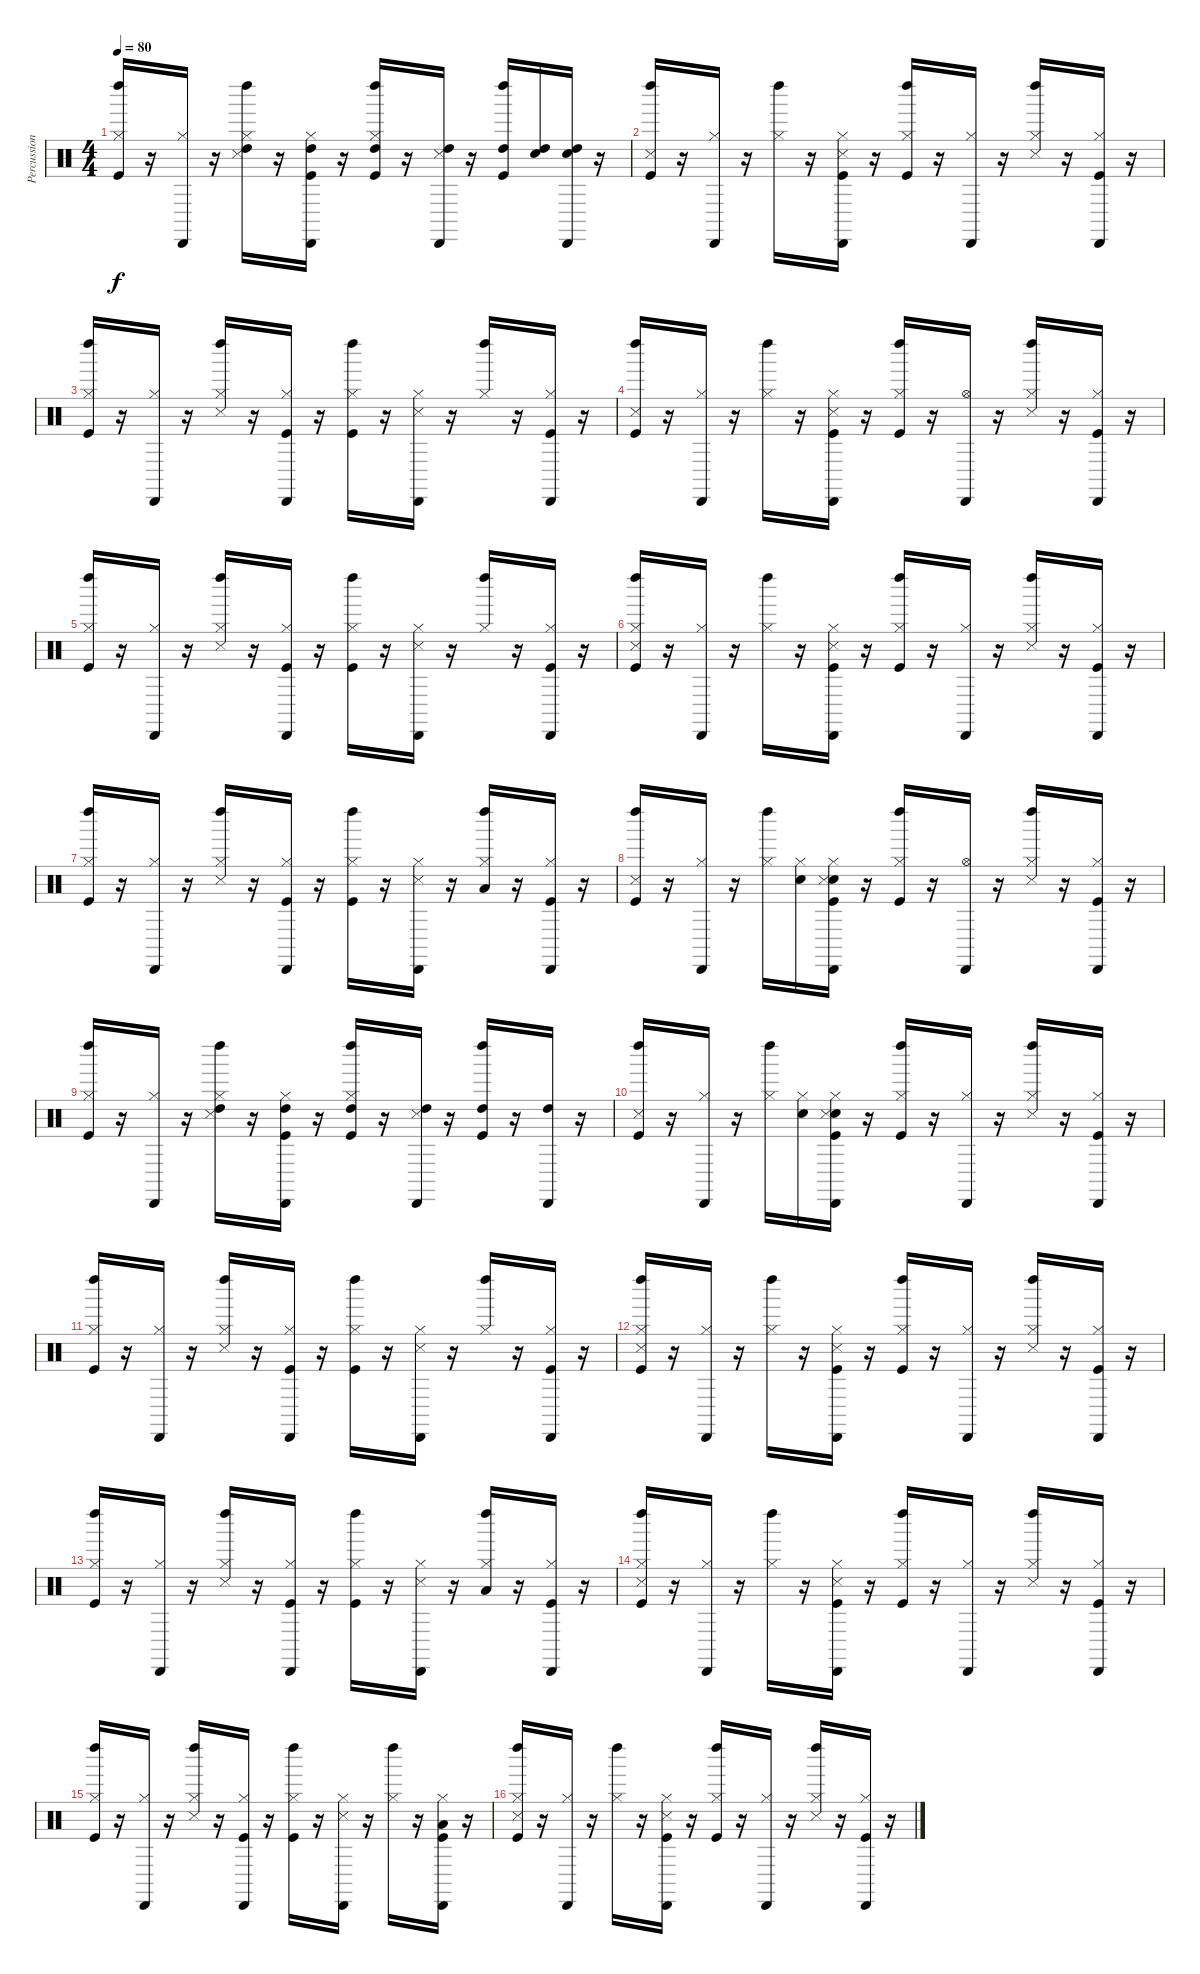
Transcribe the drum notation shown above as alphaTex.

\track ("Percussions" "Percussion") {instrument percussion}
\staff {score}
\articulation defaults
\ts (4 4)
\tempo 80
\clef neutral
\ks c
("Kick (hit)" "Hi-Hat (closed)" "Left Maraca (hit)").16{dy f} r.16 ("Hi-Hat (closed)" "Cabasa (hit)").16 r.16 ("Hi-Hat (closed)" "Snare (side stick) 3" "High Tom (hit)" "Left Maraca (hit)").16 r.16 ("Kick (hit)" "Hi-Hat (closed)" "High Tom (hit)" "Cabasa (hit)").16 r.16 ("Kick (hit)" "Hi-Hat (closed)" "High Tom (hit)" "Left Maraca (hit)").16 r.16 ("Snare (side stick) 3" "High Tom (hit)" "Cabasa (hit)").16 r.16 ("Kick (hit)" "High Tom (hit)" "Left Maraca (hit)").16 ("Snare (hit)" "High Tom (hit)").16 ("Snare (hit)" "High Tom (hit)" "Cabasa (hit)").16 r.16 |
("Kick (hit)" "Snare (side stick) 3" "Left Maraca (hit)").16 r.16 ("Hi-Hat (closed)" "Cabasa (hit)").16 r.16 ("Hi-Hat (closed)" "Left Maraca (hit)").16 r.16 ("Kick (hit)" "Hi-Hat (closed)" "Snare (side stick) 3" "Cabasa (hit)").16 r.16 ("Kick (hit)" "Hi-Hat (closed)" "Left Maraca (hit)").16 r.16 ("Hi-Hat (closed)" "Cabasa (hit)").16 r.16 ("Hi-Hat (closed)" "Snare (side stick) 3" "Left Maraca (hit)").16 r.16 ("Kick (hit)" "Hi-Hat (closed)" "Cabasa (hit)").16 r.16 |
("Kick (hit)" "Hi-Hat (closed)" "Left Maraca (hit)").16 r.16 ("Hi-Hat (closed)" "Cabasa (hit)").16 r.16 ("Hi-Hat (closed)" "Snare (side stick) 3" "Left Maraca (hit)").16 r.16 ("Kick (hit)" "Hi-Hat (closed)" "Cabasa (hit)").16 r.16 ("Kick (hit)" "Hi-Hat (closed)" "Left Maraca (hit)").16 r.16 ("Hi-Hat (closed)" "Snare (side stick) 3" "Cabasa (hit)").16 r.16 ("Hi-Hat (closed)" "Left Maraca (hit)").16 r.16 ("Kick (hit)" "Hi-Hat (closed)" "Cabasa (hit)").16 r.16 |
("Kick (hit)" "Snare (side stick) 3" "Left Maraca (hit)").16 r.16 ("Hi-Hat (closed)" "Cabasa (hit)").16 r.16 ("Hi-Hat (closed)" "Left Maraca (hit)").16 r.16 ("Kick (hit)" "Hi-Hat (closed)" "Snare (side stick) 3" "Cabasa (hit)").16 r.16 ("Kick (hit)" "Hi-Hat (closed)" "Left Maraca (hit)").16 r.16 ("Hi-Hat (open)" "Cabasa (hit)").16 r.16 ("Hi-Hat (closed)" "Snare (side stick) 3" "Left Maraca (hit)").16 r.16 ("Kick (hit)" "Hi-Hat (closed)" "Cabasa (hit)").16 r.16 |
("Kick (hit)" "Hi-Hat (closed)" "Left Maraca (hit)").16 r.16 ("Hi-Hat (closed)" "Cabasa (hit)").16 r.16 ("Hi-Hat (closed)" "Snare (side stick) 3" "Left Maraca (hit)").16 r.16 ("Kick (hit)" "Hi-Hat (closed)" "Cabasa (hit)").16 r.16 ("Kick (hit)" "Hi-Hat (closed)" "Left Maraca (hit)").16 r.16 ("Hi-Hat (closed)" "Snare (side stick) 3" "Cabasa (hit)").16 r.16 ("Hi-Hat (closed)" "Left Maraca (hit)").16 r.16 ("Kick (hit)" "Hi-Hat (closed)" "Cabasa (hit)").16 r.16 |
("Kick (hit)" "Hi-Hat (closed)" "Snare (side stick) 3" "Left Maraca (hit)").16 r.16 ("Hi-Hat (closed)" "Cabasa (hit)").16 r.16 ("Hi-Hat (closed)" "Left Maraca (hit)").16 r.16 ("Kick (hit)" "Hi-Hat (closed)" "Snare (side stick) 3" "Cabasa (hit)").16 r.16 ("Kick (hit)" "Hi-Hat (closed)" "Left Maraca (hit)").16 r.16 ("Hi-Hat (closed)" "Cabasa (hit)").16 r.16 ("Hi-Hat (closed)" "Snare (side stick) 3" "Left Maraca (hit)").16 r.16 ("Kick (hit)" "Hi-Hat (closed)" "Cabasa (hit)").16 r.16 |
("Kick (hit)" "Hi-Hat (closed)" "Left Maraca (hit)").16 r.16 ("Hi-Hat (closed)" "Cabasa (hit)").16 r.16 ("Hi-Hat (closed)" "Snare (side stick) 3" "Left Maraca (hit)").16 r.16 ("Kick (hit)" "Hi-Hat (closed)" "Cabasa (hit)").16 r.16 ("Kick (hit)" "Hi-Hat (closed)" "Left Maraca (hit)").16 r.16 ("Hi-Hat (closed)" "Snare (side stick) 3" "Cabasa (hit)").16 r.16 ("Hi-Hat (closed)" "Low Tom (hit)" "Left Maraca (hit)").16 r.16 ("Kick (hit)" "Hi-Hat (closed)" "Cabasa (hit)").16 r.16 |
("Kick (hit)" "Snare (side stick) 3" "Left Maraca (hit)").16 r.16 ("Hi-Hat (closed)" "Cabasa (hit)").16 r.16 ("Hi-Hat (closed)" "Left Maraca (hit)").16 ("Snare (hit)" "Hi-Hat (closed)").16 ("Snare (hit)" "Kick (hit)" "Hi-Hat (closed)" "Snare (side stick) 3" "Cabasa (hit)").16 r.16 ("Kick (hit)" "Hi-Hat (closed)" "Left Maraca (hit)").16 r.16 ("Hi-Hat (open)" "Cabasa (hit)").16 r.16 ("Hi-Hat (closed)" "Snare (side stick) 3" "Left Maraca (hit)").16 r.16 ("Kick (hit)" "Hi-Hat (closed)" "Cabasa (hit)").16 r.16 |
("Kick (hit)" "Hi-Hat (closed)" "Left Maraca (hit)").16 r.16 ("Hi-Hat (closed)" "Cabasa (hit)").16 r.16 ("Hi-Hat (closed)" "Snare (side stick) 3" "High Tom (hit)" "Left Maraca (hit)").16 r.16 ("Kick (hit)" "Hi-Hat (closed)" "High Tom (hit)" "Cabasa (hit)").16 r.16 ("Kick (hit)" "Hi-Hat (closed)" "High Tom (hit)" "Left Maraca (hit)").16 r.16 ("Snare (side stick) 3" "High Tom (hit)" "Cabasa (hit)").16 r.16 ("Kick (hit)" "High Tom (hit)" "Left Maraca (hit)").16 r.16 ("High Tom (hit)" "Cabasa (hit)").16 r.16 |
("Kick (hit)" "Snare (side stick) 3" "Left Maraca (hit)").16 r.16 ("Hi-Hat (closed)" "Cabasa (hit)").16 r.16 ("Hi-Hat (closed)" "Left Maraca (hit)").16 ("Snare (hit)" "Hi-Hat (closed)").16 ("Snare (hit)" "Kick (hit)" "Hi-Hat (closed)" "Snare (side stick) 3" "Cabasa (hit)").16 r.16 ("Kick (hit)" "Hi-Hat (closed)" "Left Maraca (hit)").16 r.16 ("Hi-Hat (closed)" "Cabasa (hit)").16 r.16 ("Hi-Hat (closed)" "Snare (side stick) 3" "Left Maraca (hit)").16 r.16 ("Kick (hit)" "Hi-Hat (closed)" "Cabasa (hit)").16 r.16 |
("Kick (hit)" "Hi-Hat (closed)" "Left Maraca (hit)").16 r.16 ("Hi-Hat (closed)" "Cabasa (hit)").16 r.16 ("Hi-Hat (closed)" "Snare (side stick) 3" "Left Maraca (hit)").16 r.16 ("Kick (hit)" "Hi-Hat (closed)" "Cabasa (hit)").16 r.16 ("Kick (hit)" "Hi-Hat (closed)" "Left Maraca (hit)").16 r.16 ("Hi-Hat (closed)" "Snare (side stick) 3" "Cabasa (hit)").16 r.16 ("Hi-Hat (closed)" "Left Maraca (hit)").16 r.16 ("Kick (hit)" "Hi-Hat (closed)" "Cabasa (hit)").16 r.16 |
("Kick (hit)" "Hi-Hat (closed)" "Snare (side stick) 3" "Left Maraca (hit)").16 r.16 ("Hi-Hat (closed)" "Cabasa (hit)").16 r.16 ("Hi-Hat (closed)" "Left Maraca (hit)").16 r.16 ("Kick (hit)" "Hi-Hat (closed)" "Snare (side stick) 3" "Cabasa (hit)").16 r.16 ("Kick (hit)" "Hi-Hat (closed)" "Left Maraca (hit)").16 r.16 ("Hi-Hat (closed)" "Cabasa (hit)").16 r.16 ("Hi-Hat (closed)" "Snare (side stick) 3" "Left Maraca (hit)").16 r.16 ("Kick (hit)" "Hi-Hat (closed)" "Cabasa (hit)").16 r.16 |
("Kick (hit)" "Hi-Hat (closed)" "Left Maraca (hit)").16 r.16 ("Hi-Hat (closed)" "Cabasa (hit)").16 r.16 ("Hi-Hat (closed)" "Snare (side stick) 3" "Left Maraca (hit)").16 r.16 ("Kick (hit)" "Hi-Hat (closed)" "Cabasa (hit)").16 r.16 ("Kick (hit)" "Hi-Hat (closed)" "Left Maraca (hit)").16 r.16 ("Hi-Hat (closed)" "Snare (side stick) 3" "Cabasa (hit)").16 r.16 ("Hi-Hat (closed)" "Low Tom (hit)" "Left Maraca (hit)").16 r.16 ("Kick (hit)" "Hi-Hat (closed)" "Cabasa (hit)").16 r.16 |
("Kick (hit)" "Hi-Hat (closed)" "Snare (side stick) 3" "Left Maraca (hit)").16 r.16 ("Hi-Hat (closed)" "Cabasa (hit)").16 r.16 ("Hi-Hat (closed)" "Left Maraca (hit)").16 r.16 ("Kick (hit)" "Hi-Hat (closed)" "Snare (side stick) 3" "Cabasa (hit)").16 r.16 ("Kick (hit)" "Hi-Hat (closed)" "Left Maraca (hit)").16 r.16 ("Hi-Hat (closed)" "Cabasa (hit)").16 r.16 ("Hi-Hat (closed)" "Snare (side stick) 3" "Left Maraca (hit)").16 r.16 ("Kick (hit)" "Hi-Hat (closed)" "Cabasa (hit)").16 r.16 |
("Kick (hit)" "Hi-Hat (closed)" "Left Maraca (hit)").16 r.16 ("Hi-Hat (closed)" "Cabasa (hit)").16 r.16 ("Hi-Hat (closed)" "Snare (side stick) 3" "Left Maraca (hit)").16 r.16 ("Kick (hit)" "Hi-Hat (closed)" "Cabasa (hit)").16 r.16 ("Kick (hit)" "Hi-Hat (closed)" "Left Maraca (hit)").16 r.16 ("Hi-Hat (closed)" "Snare (side stick) 3" "Cabasa (hit)").16 r.16 ("Hi-Hat (closed)" "Left Maraca (hit)").16 r.16 ("Kick (hit)" "Hi-Hat (closed)" "Low Tom (hit)" "Cabasa (hit)").16 r.16 |
("Kick (hit)" "Hi-Hat (closed)" "Snare (side stick) 3" "Left Maraca (hit)").16 r.16 ("Hi-Hat (closed)" "Cabasa (hit)").16 r.16 ("Hi-Hat (closed)" "Left Maraca (hit)").16 r.16 ("Kick (hit)" "Hi-Hat (closed)" "Snare (side stick) 3" "Cabasa (hit)").16 r.16 ("Kick (hit)" "Hi-Hat (closed)" "Left Maraca (hit)").16 r.16 ("Hi-Hat (closed)" "Cabasa (hit)").16 r.16 ("Hi-Hat (closed)" "Snare (side stick) 3" "Left Maraca (hit)").16 r.16 ("Kick (hit)" "Hi-Hat (closed)" "Cabasa (hit)").16 r.16
